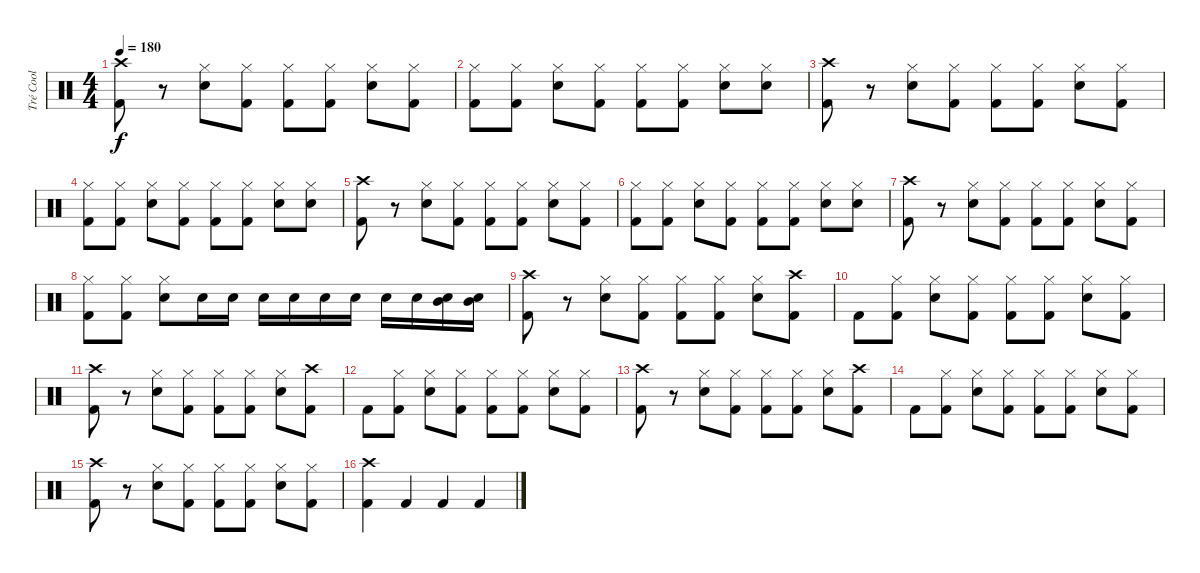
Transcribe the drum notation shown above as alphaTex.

\track ("Tré Cool" "Tré Cool") {instrument percussion}
\staff {score}
\articulation defaults
\ts (4 4)
\tempo 180
\clef neutral
\ks c
("Crash high (hit)" "Kick (hit) 2").8{dy f} r.8 ("Hi-Hat (closed)" "Snare (hit) 2").8 ("Hi-Hat (closed)" "Kick (hit) 2").8 ("Hi-Hat (closed)" "Kick (hit) 2").8 ("Hi-Hat (closed)" "Kick (hit) 2").8 ("Hi-Hat (closed)" "Snare (hit) 2").8 ("Hi-Hat (closed)" "Kick (hit) 2").8 |
("Hi-Hat (closed)" "Kick (hit) 2").8 ("Hi-Hat (closed)" "Kick (hit) 2").8 ("Hi-Hat (closed)" "Snare (hit) 2").8 ("Hi-Hat (closed)" "Kick (hit) 2").8 ("Hi-Hat (closed)" "Kick (hit) 2").8 ("Hi-Hat (closed)" "Kick (hit) 2").8 ("Hi-Hat (closed)" "Snare (hit) 2").8 ("Hi-Hat (closed)" "Snare (hit) 2").8 |
("Crash high (hit)" "Kick (hit) 2").8 r.8 ("Hi-Hat (closed)" "Snare (hit) 2").8 ("Hi-Hat (closed)" "Kick (hit) 2").8 ("Hi-Hat (closed)" "Kick (hit) 2").8 ("Hi-Hat (closed)" "Kick (hit) 2").8 ("Hi-Hat (closed)" "Snare (hit) 2").8 ("Hi-Hat (closed)" "Kick (hit) 2").8 |
("Hi-Hat (closed)" "Kick (hit) 2").8 ("Hi-Hat (closed)" "Kick (hit) 2").8 ("Hi-Hat (closed)" "Snare (hit) 2").8 ("Hi-Hat (closed)" "Kick (hit) 2").8 ("Hi-Hat (closed)" "Kick (hit) 2").8 ("Hi-Hat (closed)" "Kick (hit) 2").8 ("Hi-Hat (closed)" "Snare (hit) 2").8 ("Hi-Hat (closed)" "Snare (hit) 2").8 |
("Crash high (hit)" "Kick (hit) 2").8 r.8 ("Hi-Hat (closed)" "Snare (hit) 2").8 ("Hi-Hat (closed)" "Kick (hit) 2").8 ("Hi-Hat (closed)" "Kick (hit) 2").8 ("Hi-Hat (closed)" "Kick (hit) 2").8 ("Hi-Hat (closed)" "Snare (hit) 2").8 ("Hi-Hat (closed)" "Kick (hit) 2").8 |
("Hi-Hat (closed)" "Kick (hit) 2").8 ("Hi-Hat (closed)" "Kick (hit) 2").8 ("Hi-Hat (closed)" "Snare (hit) 2").8 ("Hi-Hat (closed)" "Kick (hit) 2").8 ("Hi-Hat (closed)" "Kick (hit) 2").8 ("Hi-Hat (closed)" "Kick (hit) 2").8 ("Hi-Hat (closed)" "Snare (hit) 2").8 ("Hi-Hat (closed)" "Snare (hit) 2").8 |
("Crash high (hit)" "Kick (hit) 2").8 r.8 ("Hi-Hat (closed)" "Snare (hit) 2").8 ("Hi-Hat (closed)" "Kick (hit) 2").8 ("Hi-Hat (closed)" "Kick (hit) 2").8 ("Hi-Hat (closed)" "Kick (hit) 2").8 ("Hi-Hat (closed)" "Snare (hit) 2").8 ("Hi-Hat (closed)" "Kick (hit) 2").8 |
("Hi-Hat (closed)" "Kick (hit) 2").8 ("Hi-Hat (closed)" "Kick (hit) 2").8 ("Hi-Hat (closed)" "Snare (hit) 2").8 "Electric Snare (hit)".16 "Electric Snare (hit)".16 "Electric Snare (hit)".16 "Electric Snare (hit)".16 "Electric Snare (hit)".16 "Electric Snare (hit)".16 "Electric Snare (hit)".16 "Electric Snare (hit)".16 ("Mid Tom (hit)" "Electric Snare (hit)").16 ("Mid Tom (hit)" "Electric Snare (hit)").16 |
("Crash high (hit)" "Kick (hit) 2").8 r.8 ("Hi-Hat (closed)" "Snare (hit) 2").8 ("Hi-Hat (closed)" "Kick (hit) 2").8 ("Hi-Hat (closed)" "Kick (hit) 2").8 ("Hi-Hat (closed)" "Kick (hit) 2").8 ("Hi-Hat (closed)" "Snare (hit) 2").8 ("Crash high (hit)" "Kick (hit) 2").8 |
"Kick (hit) 2".8 ("Hi-Hat (closed)" "Kick (hit) 2").8 ("Hi-Hat (closed)" "Snare (hit) 2").8 ("Hi-Hat (closed)" "Kick (hit) 2").8 ("Hi-Hat (closed)" "Kick (hit) 2").8 ("Hi-Hat (closed)" "Kick (hit) 2").8 ("Hi-Hat (closed)" "Snare (hit) 2").8 ("Hi-Hat (closed)" "Kick (hit) 2").8 |
("Crash high (hit)" "Kick (hit) 2").8 r.8 ("Hi-Hat (closed)" "Snare (hit) 2").8 ("Hi-Hat (closed)" "Kick (hit) 2").8 ("Hi-Hat (closed)" "Kick (hit) 2").8 ("Hi-Hat (closed)" "Kick (hit) 2").8 ("Hi-Hat (closed)" "Snare (hit) 2").8 ("Crash high (hit)" "Kick (hit) 2").8 |
"Kick (hit) 2".8 ("Hi-Hat (closed)" "Kick (hit) 2").8 ("Hi-Hat (closed)" "Snare (hit) 2").8 ("Hi-Hat (closed)" "Kick (hit) 2").8 ("Hi-Hat (closed)" "Kick (hit) 2").8 ("Hi-Hat (closed)" "Kick (hit) 2").8 ("Hi-Hat (closed)" "Snare (hit) 2").8 ("Hi-Hat (closed)" "Kick (hit) 2").8 |
("Crash high (hit)" "Kick (hit) 2").8 r.8 ("Hi-Hat (closed)" "Snare (hit) 2").8 ("Hi-Hat (closed)" "Kick (hit) 2").8 ("Hi-Hat (closed)" "Kick (hit) 2").8 ("Hi-Hat (closed)" "Kick (hit) 2").8 ("Hi-Hat (closed)" "Snare (hit) 2").8 ("Crash high (hit)" "Kick (hit) 2").8 |
"Kick (hit) 2".8 ("Hi-Hat (closed)" "Kick (hit) 2").8 ("Hi-Hat (closed)" "Snare (hit) 2").8 ("Hi-Hat (closed)" "Kick (hit) 2").8 ("Hi-Hat (closed)" "Kick (hit) 2").8 ("Hi-Hat (closed)" "Kick (hit) 2").8 ("Hi-Hat (closed)" "Snare (hit) 2").8 ("Hi-Hat (closed)" "Kick (hit) 2").8 |
("Crash high (hit)" "Kick (hit) 2").8 r.8 ("Hi-Hat (closed)" "Snare (hit) 2").8 ("Hi-Hat (closed)" "Kick (hit) 2").8 ("Hi-Hat (closed)" "Kick (hit) 2").8 ("Hi-Hat (closed)" "Kick (hit) 2").8 ("Hi-Hat (closed)" "Snare (hit) 2").8 ("Hi-Hat (closed)" "Kick (hit) 2").8 |
("Crash high (hit)" "Kick (hit) 2").4 "Kick (hit) 2".4 "Kick (hit) 2".4 "Kick (hit) 2".4
